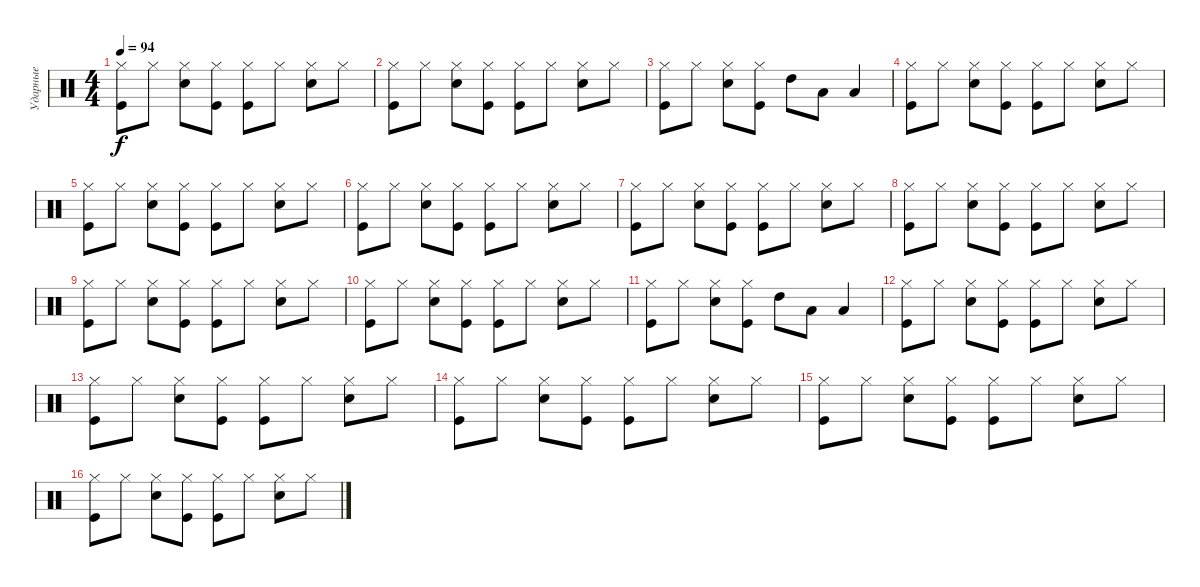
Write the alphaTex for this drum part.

\track ("Ударные" "Ударные") {instrument percussion}
\staff {score}
\articulation defaults
\ts (4 4)
\tempo 94
\clef neutral
\ks c
("Hi-Hat (closed)" "Kick (hit)").8{dy f} "Hi-Hat (closed)".8 ("Hi-Hat (closed)" "Snare (hit) 2").8 ("Kick (hit)" "Hi-Hat (closed)").8 ("Hi-Hat (closed)" "Kick (hit)").8 "Hi-Hat (closed)".8 ("Hi-Hat (closed)" "Snare (hit) 2").8 "Hi-Hat (closed)".8 |
("Hi-Hat (closed)" "Kick (hit)").8 "Hi-Hat (closed)".8 ("Hi-Hat (closed)" "Snare (hit) 2").8 ("Kick (hit)" "Hi-Hat (closed)").8 ("Hi-Hat (closed)" "Kick (hit)").8 "Hi-Hat (closed)".8 ("Hi-Hat (closed)" "Snare (hit) 2").8 "Hi-Hat (closed)".8 |
("Hi-Hat (closed)" "Kick (hit)").8 "Hi-Hat (closed)".8 ("Hi-Hat (closed)" "Snare (hit) 2").8 ("Kick (hit)" "Hi-Hat (closed)").8 "High Tom (hit)".8 "Low Tom (hit)".8 "Low Floor Tom (hit)".4 |
("Hi-Hat (closed)" "Kick (hit)").8 "Hi-Hat (closed)".8 ("Hi-Hat (closed)" "Snare (hit) 2").8 ("Kick (hit)" "Hi-Hat (closed)").8 ("Hi-Hat (closed)" "Kick (hit)").8 "Hi-Hat (closed)".8 ("Hi-Hat (closed)" "Snare (hit) 2").8 "Hi-Hat (closed)".8 |
("Hi-Hat (closed)" "Kick (hit)").8 "Hi-Hat (closed)".8 ("Hi-Hat (closed)" "Snare (hit) 2").8 ("Kick (hit)" "Hi-Hat (closed)").8 ("Hi-Hat (closed)" "Kick (hit)").8 "Hi-Hat (closed)".8 ("Hi-Hat (closed)" "Snare (hit) 2").8 "Hi-Hat (closed)".8 |
("Hi-Hat (closed)" "Kick (hit)").8 "Hi-Hat (closed)".8 ("Hi-Hat (closed)" "Snare (hit) 2").8 ("Kick (hit)" "Hi-Hat (closed)").8 ("Hi-Hat (closed)" "Kick (hit)").8 "Hi-Hat (closed)".8 ("Hi-Hat (closed)" "Snare (hit) 2").8 "Hi-Hat (closed)".8 |
("Hi-Hat (closed)" "Kick (hit)").8 "Hi-Hat (closed)".8 ("Hi-Hat (closed)" "Snare (hit) 2").8 ("Kick (hit)" "Hi-Hat (closed)").8 ("Hi-Hat (closed)" "Kick (hit)").8 "Hi-Hat (closed)".8 ("Hi-Hat (closed)" "Snare (hit) 2").8 "Hi-Hat (closed)".8 |
("Hi-Hat (closed)" "Kick (hit)").8 "Hi-Hat (closed)".8 ("Hi-Hat (closed)" "Snare (hit) 2").8 ("Kick (hit)" "Hi-Hat (closed)").8 ("Hi-Hat (closed)" "Kick (hit)").8 "Hi-Hat (closed)".8 ("Hi-Hat (closed)" "Snare (hit) 2").8 "Hi-Hat (closed)".8 |
("Hi-Hat (closed)" "Kick (hit)").8 "Hi-Hat (closed)".8 ("Hi-Hat (closed)" "Snare (hit) 2").8 ("Kick (hit)" "Hi-Hat (closed)").8 ("Hi-Hat (closed)" "Kick (hit)").8 "Hi-Hat (closed)".8 ("Hi-Hat (closed)" "Snare (hit) 2").8 "Hi-Hat (closed)".8 |
("Hi-Hat (closed)" "Kick (hit)").8 "Hi-Hat (closed)".8 ("Hi-Hat (closed)" "Snare (hit) 2").8 ("Kick (hit)" "Hi-Hat (closed)").8 ("Hi-Hat (closed)" "Kick (hit)").8 "Hi-Hat (closed)".8 ("Hi-Hat (closed)" "Snare (hit) 2").8 "Hi-Hat (closed)".8 |
("Hi-Hat (closed)" "Kick (hit)").8 "Hi-Hat (closed)".8 ("Hi-Hat (closed)" "Snare (hit) 2").8 ("Kick (hit)" "Hi-Hat (closed)").8 "High Tom (hit)".8 "Low Tom (hit)".8 "Low Floor Tom (hit)".4 |
("Hi-Hat (closed)" "Kick (hit)").8 "Hi-Hat (closed)".8 ("Hi-Hat (closed)" "Snare (hit) 2").8 ("Kick (hit)" "Hi-Hat (closed)").8 ("Hi-Hat (closed)" "Kick (hit)").8 "Hi-Hat (closed)".8 ("Hi-Hat (closed)" "Snare (hit) 2").8 "Hi-Hat (closed)".8 |
("Hi-Hat (closed)" "Kick (hit)").8 "Hi-Hat (closed)".8 ("Hi-Hat (closed)" "Snare (hit) 2").8 ("Kick (hit)" "Hi-Hat (closed)").8 ("Hi-Hat (closed)" "Kick (hit)").8 "Hi-Hat (closed)".8 ("Hi-Hat (closed)" "Snare (hit) 2").8 "Hi-Hat (closed)".8 |
("Hi-Hat (closed)" "Kick (hit)").8 "Hi-Hat (closed)".8 ("Hi-Hat (closed)" "Snare (hit) 2").8 ("Kick (hit)" "Hi-Hat (closed)").8 ("Hi-Hat (closed)" "Kick (hit)").8 "Hi-Hat (closed)".8 ("Hi-Hat (closed)" "Snare (hit) 2").8 "Hi-Hat (closed)".8 |
("Hi-Hat (closed)" "Kick (hit)").8 "Hi-Hat (closed)".8 ("Hi-Hat (closed)" "Snare (hit) 2").8 ("Kick (hit)" "Hi-Hat (closed)").8 ("Hi-Hat (closed)" "Kick (hit)").8 "Hi-Hat (closed)".8 ("Hi-Hat (closed)" "Snare (hit) 2").8 "Hi-Hat (closed)".8 |
("Hi-Hat (closed)" "Kick (hit)").8 "Hi-Hat (closed)".8 ("Hi-Hat (closed)" "Snare (hit) 2").8 ("Kick (hit)" "Hi-Hat (closed)").8 ("Hi-Hat (closed)" "Kick (hit)").8 "Hi-Hat (closed)".8 ("Hi-Hat (closed)" "Snare (hit) 2").8 "Hi-Hat (closed)".8
